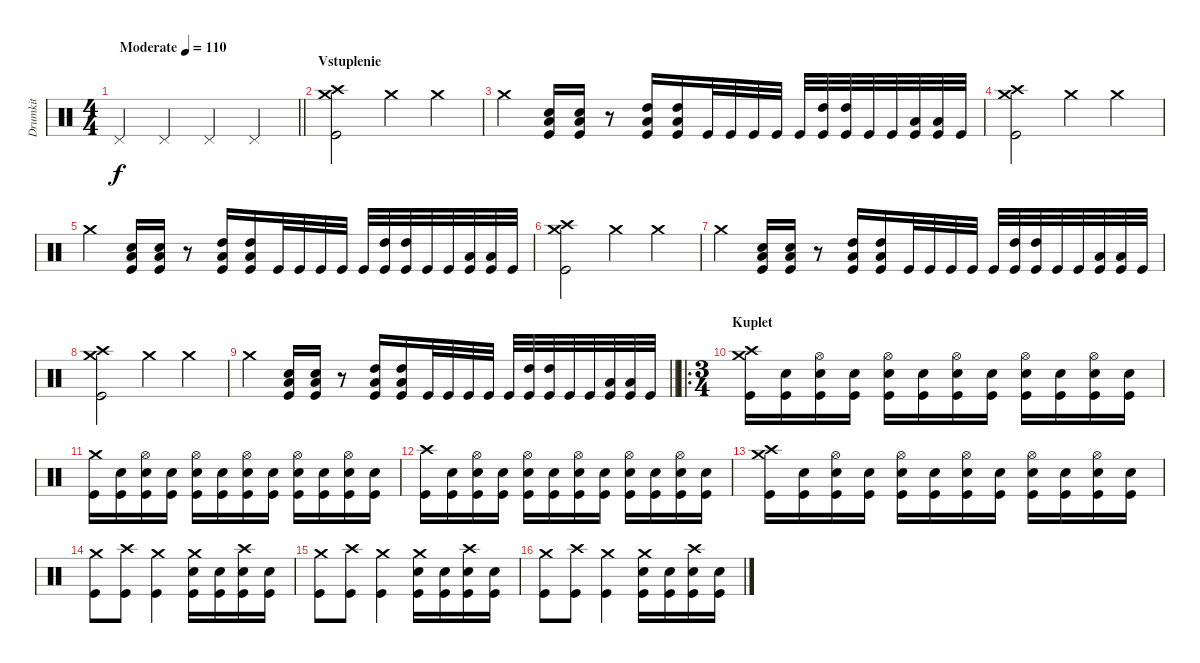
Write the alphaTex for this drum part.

\track ("Drumkit" "Drumkit") {instrument percussion}
\staff {score}
\articulation defaults
\ts (4 4)
\tempo (110 "Moderate")
\clef neutral
\barLineRight lightlight
\ks c "Pedal Hi-Hat (hit)".4{dy f} "Pedal Hi-Hat (hit)".4 "Pedal Hi-Hat (hit)".4 "Pedal Hi-Hat (hit)".4
|
\section ("" "Vstuplenie")
("Crash high (hit)" "Crash medium (hit)" "Kick (hit)").2 "Crash medium (hit)".4 "Crash medium (hit)".4 |
"Crash medium (hit)".4 ("Low Tom (hit)" "Snare (hit) 2" "Kick (hit)").16 ("Low Tom (hit)" "Snare (hit) 2" "Kick (hit)").16 r.8 ("Low Floor Tom (hit)" "High Tom (hit)" "Kick (hit)").16 ("Low Floor Tom (hit)" "High Tom (hit)" "Kick (hit)").16 "Kick (hit)".32 "Kick (hit)".32 "Kick (hit)".32 "Kick (hit)".32 "Kick (hit)".32 ("High Tom (hit)" "Kick (hit)").32 ("High Tom (hit)" "Kick (hit)").32 "Kick (hit)".32 "Kick (hit)".32 ("Low Tom (hit)" "Kick (hit)").32 ("Low Tom (hit)" "Kick (hit)").32 "Kick (hit)".32 |
("Crash high (hit)" "Crash medium (hit)" "Kick (hit)").2 "Crash medium (hit)".4 "Crash medium (hit)".4 |
"Crash medium (hit)".4 ("Low Tom (hit)" "Snare (hit) 2" "Kick (hit)").16 ("Low Tom (hit)" "Snare (hit) 2" "Kick (hit)").16 r.8 ("Low Floor Tom (hit)" "High Tom (hit)" "Kick (hit)").16 ("Low Floor Tom (hit)" "High Tom (hit)" "Kick (hit)").16 "Kick (hit)".32 "Kick (hit)".32 "Kick (hit)".32 "Kick (hit)".32 "Kick (hit)".32 ("High Tom (hit)" "Kick (hit)").32 ("High Tom (hit)" "Kick (hit)").32 "Kick (hit)".32 "Kick (hit)".32 ("Low Tom (hit)" "Kick (hit)").32 ("Low Tom (hit)" "Kick (hit)").32 "Kick (hit)".32 |
("Crash high (hit)" "Crash medium (hit)" "Kick (hit)").2 "Crash medium (hit)".4 "Crash medium (hit)".4 |
"Crash medium (hit)".4 ("Low Tom (hit)" "Snare (hit) 2" "Kick (hit)").16 ("Low Tom (hit)" "Snare (hit) 2" "Kick (hit)").16 r.8 ("Low Floor Tom (hit)" "High Tom (hit)" "Kick (hit)").16 ("Low Floor Tom (hit)" "High Tom (hit)" "Kick (hit)").16 "Kick (hit)".32 "Kick (hit)".32 "Kick (hit)".32 "Kick (hit)".32 "Kick (hit)".32 ("High Tom (hit)" "Kick (hit)").32 ("High Tom (hit)" "Kick (hit)").32 "Kick (hit)".32 "Kick (hit)".32 ("Low Tom (hit)" "Kick (hit)").32 ("Low Tom (hit)" "Kick (hit)").32 "Kick (hit)".32 |
("Crash high (hit)" "Crash medium (hit)" "Kick (hit)").2 "Crash medium (hit)".4 "Crash medium (hit)".4 |
\barLineRight lightlight "Crash medium (hit)".4
("Low Tom (hit)" "Snare (hit) 2" "Kick (hit)").16 ("Low Tom (hit)" "Snare (hit) 2" "Kick (hit)").16 r.8 ("Low Floor Tom (hit)" "High Tom (hit)" "Kick (hit)").16 ("Low Floor Tom (hit)" "High Tom (hit)" "Kick (hit)").16 "Kick (hit)".32 "Kick (hit)".32 "Kick (hit)".32 "Kick (hit)".32 "Kick (hit)".32 ("High Tom (hit)" "Kick (hit)").32 ("High Tom (hit)" "Kick (hit)").32 "Kick (hit)".32 "Kick (hit)".32 ("Low Tom (hit)" "Kick (hit)").32 ("Low Tom (hit)" "Kick (hit)").32 "Kick (hit)".32 |
\ro
\ts (3 4)
\section ("" "Kuplet")
("Crash high (hit)" "Crash medium (hit)" "Kick (hit)").16 ("Snare (hit) 2" "Kick (hit)").16 ("Hi-Hat (open)" "Snare (hit) 2" "Kick (hit)").16 ("Snare (hit) 2" "Kick (hit)").16 ("Hi-Hat (open)" "Snare (hit) 2" "Kick (hit)").16 ("Snare (hit) 2" "Kick (hit)").16 ("Hi-Hat (open)" "Snare (hit) 2" "Kick (hit)").16 ("Snare (hit) 2" "Kick (hit)").16 ("Hi-Hat (open)" "Snare (hit) 2" "Kick (hit)").16 ("Snare (hit) 2" "Kick (hit)").16 ("Hi-Hat (open)" "Snare (hit) 2" "Kick (hit)").16 ("Snare (hit) 2" "Kick (hit)").16 |
("Crash medium (hit)" "Kick (hit)").16 ("Snare (hit) 2" "Kick (hit)").16 ("Hi-Hat (open)" "Snare (hit) 2" "Kick (hit)").16 ("Snare (hit) 2" "Kick (hit)").16 ("Hi-Hat (open)" "Snare (hit) 2" "Kick (hit)").16 ("Snare (hit) 2" "Kick (hit)").16 ("Hi-Hat (open)" "Snare (hit) 2" "Kick (hit)").16 ("Snare (hit) 2" "Kick (hit)").16 ("Hi-Hat (open)" "Snare (hit) 2" "Kick (hit)").16 ("Snare (hit) 2" "Kick (hit)").16 ("Hi-Hat (open)" "Snare (hit) 2" "Kick (hit)").16 ("Snare (hit) 2" "Kick (hit)").16 |
("Crash high (hit)" "Kick (hit)").16 ("Snare (hit) 2" "Kick (hit)").16 ("Hi-Hat (open)" "Snare (hit) 2" "Kick (hit)").16 ("Snare (hit) 2" "Kick (hit)").16 ("Hi-Hat (open)" "Snare (hit) 2" "Kick (hit)").16 ("Snare (hit) 2" "Kick (hit)").16 ("Hi-Hat (open)" "Snare (hit) 2" "Kick (hit)").16 ("Snare (hit) 2" "Kick (hit)").16 ("Hi-Hat (open)" "Snare (hit) 2" "Kick (hit)").16 ("Snare (hit) 2" "Kick (hit)").16 ("Hi-Hat (open)" "Snare (hit) 2" "Kick (hit)").16 ("Snare (hit) 2" "Kick (hit)").16 |
("Crash high (hit)" "Crash medium (hit)" "Kick (hit)").16 ("Snare (hit) 2" "Kick (hit)").16 ("Hi-Hat (open)" "Snare (hit) 2" "Kick (hit)").16 ("Snare (hit) 2" "Kick (hit)").16 ("Hi-Hat (open)" "Snare (hit) 2" "Kick (hit)").16 ("Snare (hit) 2" "Kick (hit)").16 ("Hi-Hat (open)" "Snare (hit) 2" "Kick (hit)").16 ("Snare (hit) 2" "Kick (hit)").16 ("Hi-Hat (open)" "Snare (hit) 2" "Kick (hit)").16 ("Snare (hit) 2" "Kick (hit)").16 ("Hi-Hat (open)" "Snare (hit) 2" "Kick (hit)").16 ("Snare (hit) 2" "Kick (hit)").16 |
("Crash medium (hit)" "Kick (hit)").8 ("Crash high (hit)" "Kick (hit)").8 ("Crash medium (hit)" "Kick (hit)").4 ("Crash medium (hit)" "Snare (hit) 2" "Kick (hit)").16 ("Snare (hit) 2" "Kick (hit)").16 ("Crash high (hit)" "Snare (hit) 2" "Kick (hit)").16 ("Snare (hit) 2" "Kick (hit)").16 |
("Crash medium (hit)" "Kick (hit)").8 ("Crash high (hit)" "Kick (hit)").8 ("Crash medium (hit)" "Kick (hit)").4 ("Crash medium (hit)" "Snare (hit) 2" "Kick (hit)").16 ("Snare (hit) 2" "Kick (hit)").16 ("Crash high (hit)" "Snare (hit) 2" "Kick (hit)").16 ("Snare (hit) 2" "Kick (hit)").16 |
("Crash medium (hit)" "Kick (hit)").8 ("Crash high (hit)" "Kick (hit)").8 ("Crash medium (hit)" "Kick (hit)").4 ("Crash medium (hit)" "Snare (hit) 2" "Kick (hit)").16 ("Snare (hit) 2" "Kick (hit)").16 ("Crash high (hit)" "Snare (hit) 2" "Kick (hit)").16 ("Snare (hit) 2" "Kick (hit)").16
